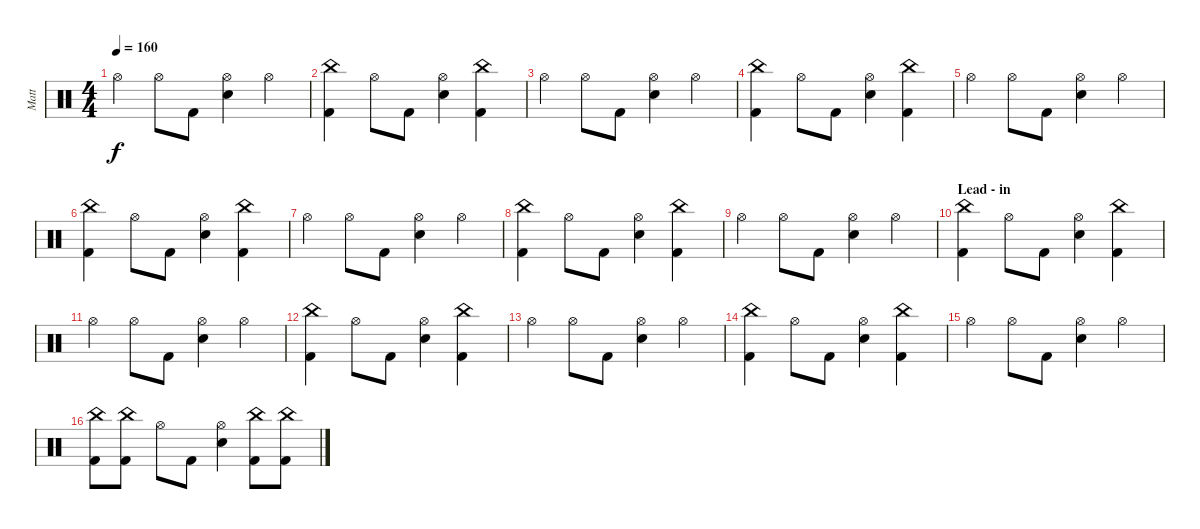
\track ("Matt" "Matt") {instrument percussion}
\staff {score}
\articulation defaults
\ts (4 4)
\tempo 160
\clef neutral
\ks c "Hi-Hat (open)".4{dy f} "Hi-Hat (open)".8 "Kick (hit) 2".8
("Hi-Hat (open)" "Electric Snare (hit)").4 "Hi-Hat (open)".4 |
("Kick (hit) 2" "China (hit)").4 "Hi-Hat (open)".8 "Kick (hit) 2".8 ("Electric Snare (hit)" "Hi-Hat (open)").4 ("Kick (hit) 2" "China (hit)").4 |
"Hi-Hat (open)".4 "Hi-Hat (open)".8 "Kick (hit) 2".8 ("Hi-Hat (open)" "Electric Snare (hit)").4 "Hi-Hat (open)".4 |
("Kick (hit) 2" "China (hit)").4 "Hi-Hat (open)".8 "Kick (hit) 2".8 ("Electric Snare (hit)" "Hi-Hat (open)").4 ("Kick (hit) 2" "China (hit)").4 |
"Hi-Hat (open)".4 "Hi-Hat (open)".8 "Kick (hit) 2".8 ("Hi-Hat (open)" "Electric Snare (hit)").4 "Hi-Hat (open)".4 |
("Kick (hit) 2" "China (hit)").4 "Hi-Hat (open)".8 "Kick (hit) 2".8 ("Electric Snare (hit)" "Hi-Hat (open)").4 ("Kick (hit) 2" "China (hit)").4 |
"Hi-Hat (open)".4 "Hi-Hat (open)".8 "Kick (hit) 2".8 ("Hi-Hat (open)" "Electric Snare (hit)").4 "Hi-Hat (open)".4 |
("Kick (hit) 2" "China (hit)").4 "Hi-Hat (open)".8 "Kick (hit) 2".8 ("Electric Snare (hit)" "Hi-Hat (open)").4 ("Kick (hit) 2" "China (hit)").4 |
"Hi-Hat (open)".4 "Hi-Hat (open)".8 "Kick (hit) 2".8 ("Hi-Hat (open)" "Electric Snare (hit)").4 "Hi-Hat (open)".4 |
\section ("" "Lead - in")
("Kick (hit) 2" "China (hit)").4 "Hi-Hat (open)".8 "Kick (hit) 2".8 ("Electric Snare (hit)" "Hi-Hat (open)").4 ("Kick (hit) 2" "China (hit)").4 |
"Hi-Hat (open)".4 "Hi-Hat (open)".8 "Kick (hit) 2".8 ("Hi-Hat (open)" "Electric Snare (hit)").4 "Hi-Hat (open)".4 |
("Kick (hit) 2" "China (hit)").4 "Hi-Hat (open)".8 "Kick (hit) 2".8 ("Electric Snare (hit)" "Hi-Hat (open)").4 ("Kick (hit) 2" "China (hit)").4 |
"Hi-Hat (open)".4 "Hi-Hat (open)".8 "Kick (hit) 2".8 ("Hi-Hat (open)" "Electric Snare (hit)").4 "Hi-Hat (open)".4 |
("Kick (hit) 2" "China (hit)").4 "Hi-Hat (open)".8 "Kick (hit) 2".8 ("Electric Snare (hit)" "Hi-Hat (open)").4 ("Kick (hit) 2" "China (hit)").4 |
"Hi-Hat (open)".4 "Hi-Hat (open)".8 "Kick (hit) 2".8 ("Hi-Hat (open)" "Electric Snare (hit)").4 "Hi-Hat (open)".4 |
("China (hit)" "Kick (hit) 2").8 ("China (hit)" "Kick (hit) 2").8 "Hi-Hat (open)".8 "Kick (hit) 2".8 ("Hi-Hat (open)" "Electric Snare (hit)").4 ("Kick (hit) 2" "China (hit)").8 ("Kick (hit) 2" "China (hit)").8
